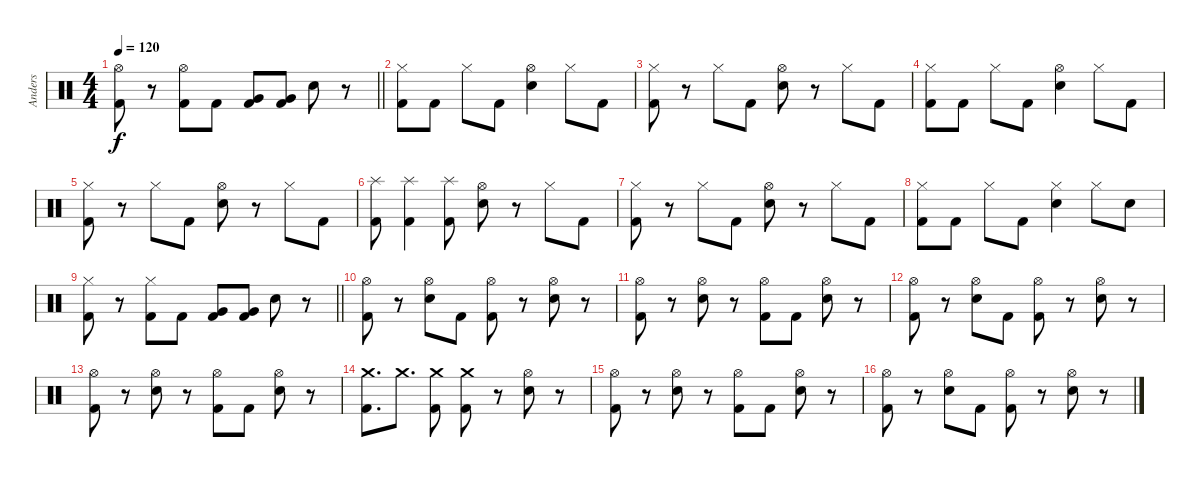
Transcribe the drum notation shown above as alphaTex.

\track ("Anders" "Anders") {instrument percussion}
\staff {score}
\articulation defaults
\ts (4 4)
\tempo 120
\clef neutral
\barLineRight lightlight
\ks c
("Hi-Hat (open)" "Kick (hit) 2").8{dy f} r.8 ("Hi-Hat (open)" "Kick (hit) 2").8 "Kick (hit) 2".8 ("Very Low Tom (hit)" "Kick (hit) 2").8 ("Very Low Tom (hit)" "Kick (hit) 2").8 "Electric Snare (hit)".8 r.8 |
\section ("" "")
("Hi-Hat (closed)" "Kick (hit) 2").8 "Kick (hit) 2".8 "Hi-Hat (closed)".8 "Kick (hit) 2".8 ("Hi-Hat (open)" "Electric Snare (hit)").4 "Hi-Hat (closed)".8 "Kick (hit) 2".8 |
("Hi-Hat (closed)" "Kick (hit) 2").8 r.8 "Hi-Hat (closed)".8 "Kick (hit) 2".8 ("Hi-Hat (open)" "Electric Snare (hit)").8 r.8 "Hi-Hat (closed)".8 "Kick (hit) 2".8 |
("Hi-Hat (closed)" "Kick (hit) 2").8 "Kick (hit) 2".8 "Hi-Hat (closed)".8 "Kick (hit) 2".8 ("Hi-Hat (open)" "Electric Snare (hit)").4 "Hi-Hat (closed)".8 "Kick (hit) 2".8 |
("Hi-Hat (closed)" "Kick (hit) 2").8 r.8 "Hi-Hat (closed)".8 "Kick (hit) 2".8 ("Hi-Hat (open)" "Electric Snare (hit)").8 r.8 "Hi-Hat (closed)".8 "Kick (hit) 2".8 |
("Splash (hit)" "Kick (hit) 2").8 ("Splash (hit)" "Kick (hit) 2").4 ("Splash (hit)" "Kick (hit) 2").8 ("Hi-Hat (open)" "Electric Snare (hit)").8 r.8 "Hi-Hat (closed)".8 "Kick (hit) 2".8 |
("Hi-Hat (closed)" "Kick (hit) 2").8 r.8 "Hi-Hat (closed)".8 "Kick (hit) 2".8 ("Hi-Hat (open)" "Electric Snare (hit)").8 r.8 "Hi-Hat (closed)".8 "Kick (hit) 2".8 |
("Hi-Hat (closed)" "Kick (hit) 2").8 "Kick (hit) 2".8 "Hi-Hat (closed)".8 "Kick (hit) 2".8 ("Hi-Hat (closed)" "Electric Snare (hit)").4 "Hi-Hat (closed)".8 "Electric Snare (hit)".8 |
\barLineRight lightlight
("Hi-Hat (closed)" "Kick (hit) 2").8 r.8 ("Hi-Hat (closed)" "Kick (hit) 2").8 "Kick (hit) 2".8 ("Very Low Tom (hit)" "Kick (hit) 2").8 ("Very Low Tom (hit)" "Kick (hit) 2").8 "Electric Snare (hit)".8 r.8 |
\section ("" "")
("Hi-Hat (open)" "Kick (hit) 2").8 r.8 ("Hi-Hat (open)" "Electric Snare (hit)").8 "Kick (hit) 2".8 ("Hi-Hat (open)" "Kick (hit) 2").8 r.8 ("Hi-Hat (open)" "Electric Snare (hit)").8 r.8 |
("Hi-Hat (open)" "Kick (hit) 2").8 r.8 ("Hi-Hat (open)" "Electric Snare (hit)").8 r.8 ("Hi-Hat (open)" "Kick (hit) 2").8 "Kick (hit) 2".8 ("Hi-Hat (open)" "Electric Snare (hit)").8 r.8 |
("Hi-Hat (open)" "Kick (hit) 2").8 r.8 ("Hi-Hat (open)" "Electric Snare (hit)").8 "Kick (hit) 2".8 ("Hi-Hat (open)" "Kick (hit) 2").8 r.8 ("Hi-Hat (open)" "Electric Snare (hit)").8 r.8 |
("Hi-Hat (open)" "Kick (hit) 2").8 r.8 ("Hi-Hat (open)" "Electric Snare (hit)").8 r.8 ("Hi-Hat (open)" "Kick (hit) 2").8 "Kick (hit) 2".8 ("Hi-Hat (open)" "Electric Snare (hit)").8 r.8 |
("Crash medium (hit)" "Kick (hit) 2").8{d} "Crash medium (hit)".8{d} ("Crash medium (hit)" "Kick (hit) 2").8 ("Crash medium (hit)" "Kick (hit) 2").8 r.8 ("Hi-Hat (open)" "Electric Snare (hit)").8 r.8 |
("Hi-Hat (open)" "Kick (hit) 2").8 r.8 ("Hi-Hat (open)" "Electric Snare (hit)").8 r.8 ("Hi-Hat (open)" "Kick (hit) 2").8 "Kick (hit) 2".8 ("Hi-Hat (open)" "Electric Snare (hit)").8 r.8 |
("Hi-Hat (open)" "Kick (hit) 2").8 r.8 ("Hi-Hat (open)" "Electric Snare (hit)").8 "Kick (hit) 2".8 ("Hi-Hat (open)" "Kick (hit) 2").8 r.8 ("Hi-Hat (open)" "Electric Snare (hit)").8 r.8
